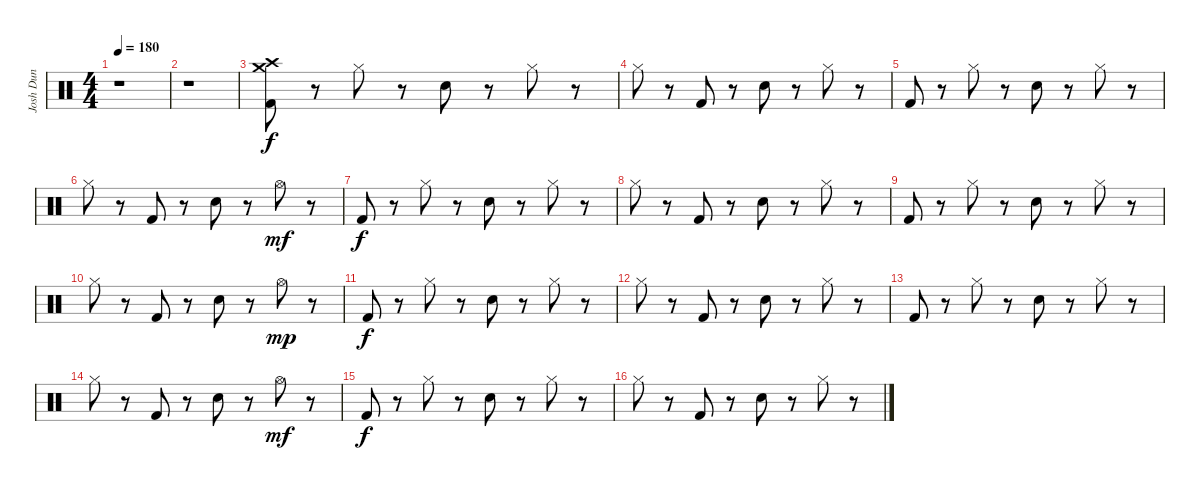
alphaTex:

\track ("Josh Dun" "Josh Dun") {instrument percussion}
\staff {score}
\articulation defaults
\ts (4 4)
\tempo 180
\clef neutral
\ks c
r.1{dy f} |
r.1 |
("Crash high (hit)" "Crash medium (hit)" "Kick (hit) 2").8 r.8 "Hi-Hat (closed)".8 r.8 "Snare (hit) 2".8 r.8 "Hi-Hat (closed)".8 r.8 |
"Hi-Hat (closed)".8 r.8 "Kick (hit) 2".8 r.8 "Snare (hit) 2".8 r.8 "Hi-Hat (closed)".8 r.8 |
"Kick (hit) 2".8 r.8 "Hi-Hat (closed)".8 r.8 "Snare (hit) 2".8 r.8 "Hi-Hat (closed)".8 r.8 |
"Hi-Hat (closed)".8 r.8 "Kick (hit) 2".8 r.8 "Snare (hit) 2".8 r.8 "Hi-Hat (open)".8{dy mf} r.8 |
"Kick (hit) 2".8{dy f} r.8 "Hi-Hat (closed)".8 r.8 "Snare (hit) 2".8 r.8 "Hi-Hat (closed)".8 r.8 |
"Hi-Hat (closed)".8 r.8 "Kick (hit) 2".8 r.8 "Snare (hit) 2".8 r.8 "Hi-Hat (closed)".8 r.8 |
"Kick (hit) 2".8 r.8 "Hi-Hat (closed)".8 r.8 "Snare (hit) 2".8 r.8 "Hi-Hat (closed)".8 r.8 |
"Hi-Hat (closed)".8 r.8 "Kick (hit) 2".8 r.8 "Snare (hit) 2".8 r.8 "Hi-Hat (open)".8{dy mp} r.8 |
"Kick (hit) 2".8{dy f} r.8 "Hi-Hat (closed)".8 r.8 "Snare (hit) 2".8 r.8 "Hi-Hat (closed)".8 r.8 |
"Hi-Hat (closed)".8 r.8 "Kick (hit) 2".8 r.8 "Snare (hit) 2".8 r.8 "Hi-Hat (closed)".8 r.8 |
"Kick (hit) 2".8 r.8 "Hi-Hat (closed)".8 r.8 "Snare (hit) 2".8 r.8 "Hi-Hat (closed)".8 r.8 |
"Hi-Hat (closed)".8 r.8 "Kick (hit) 2".8 r.8 "Snare (hit) 2".8 r.8 "Hi-Hat (open)".8{dy mf} r.8 |
"Kick (hit) 2".8{dy f} r.8 "Hi-Hat (closed)".8 r.8 "Snare (hit) 2".8 r.8 "Hi-Hat (closed)".8 r.8 |
"Hi-Hat (closed)".8 r.8 "Kick (hit) 2".8 r.8 "Snare (hit) 2".8 r.8 "Hi-Hat (closed)".8 r.8
